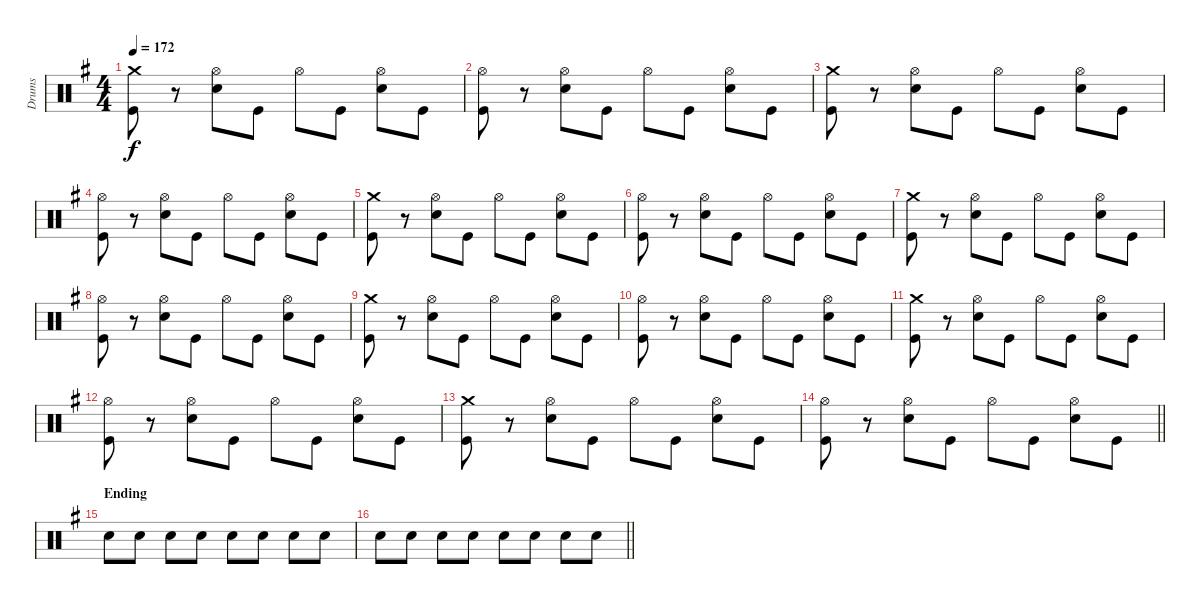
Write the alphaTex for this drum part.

\track ("Drums" "Drums") {instrument percussion}
\staff {score}
\articulation defaults
\ts (4 4)
\tempo 172
\clef neutral
\ks g
("Crash medium (hit)" "Kick (hit)").8{dy f} r.8 ("Hi-Hat (open)" "Snare (hit) 2").8 "Kick (hit)".8 "Hi-Hat (open)".8 "Kick (hit)".8 ("Hi-Hat (open)" "Snare (hit) 2").8 "Kick (hit)".8 |
("Hi-Hat (open)" "Kick (hit)").8 r.8 ("Hi-Hat (open)" "Snare (hit) 2").8 "Kick (hit)".8 "Hi-Hat (open)".8 "Kick (hit)".8 ("Hi-Hat (open)" "Snare (hit) 2").8 "Kick (hit)".8 |
("Crash medium (hit)" "Kick (hit)").8 r.8 ("Hi-Hat (open)" "Snare (hit) 2").8 "Kick (hit)".8 "Hi-Hat (open)".8 "Kick (hit)".8 ("Hi-Hat (open)" "Snare (hit) 2").8 "Kick (hit)".8 |
("Hi-Hat (open)" "Kick (hit)").8 r.8 ("Hi-Hat (open)" "Snare (hit) 2").8 "Kick (hit)".8 "Hi-Hat (open)".8 "Kick (hit)".8 ("Hi-Hat (open)" "Snare (hit) 2").8 "Kick (hit)".8 |
("Crash medium (hit)" "Kick (hit)").8 r.8 ("Hi-Hat (open)" "Snare (hit) 2").8 "Kick (hit)".8 "Hi-Hat (open)".8 "Kick (hit)".8 ("Hi-Hat (open)" "Snare (hit) 2").8 "Kick (hit)".8 |
("Hi-Hat (open)" "Kick (hit)").8 r.8 ("Hi-Hat (open)" "Snare (hit) 2").8 "Kick (hit)".8 "Hi-Hat (open)".8 "Kick (hit)".8 ("Hi-Hat (open)" "Snare (hit) 2").8 "Kick (hit)".8 |
("Crash medium (hit)" "Kick (hit)").8 r.8 ("Hi-Hat (open)" "Snare (hit) 2").8 "Kick (hit)".8 "Hi-Hat (open)".8 "Kick (hit)".8 ("Hi-Hat (open)" "Snare (hit) 2").8 "Kick (hit)".8 |
("Hi-Hat (open)" "Kick (hit)").8 r.8 ("Hi-Hat (open)" "Snare (hit) 2").8 "Kick (hit)".8 "Hi-Hat (open)".8 "Kick (hit)".8 ("Hi-Hat (open)" "Snare (hit) 2").8 "Kick (hit)".8 |
("Crash medium (hit)" "Kick (hit)").8 r.8 ("Hi-Hat (open)" "Snare (hit) 2").8 "Kick (hit)".8 "Hi-Hat (open)".8 "Kick (hit)".8 ("Hi-Hat (open)" "Snare (hit) 2").8 "Kick (hit)".8 |
("Hi-Hat (open)" "Kick (hit)").8 r.8 ("Hi-Hat (open)" "Snare (hit) 2").8 "Kick (hit)".8 "Hi-Hat (open)".8 "Kick (hit)".8 ("Hi-Hat (open)" "Snare (hit) 2").8 "Kick (hit)".8 |
("Crash medium (hit)" "Kick (hit)").8 r.8 ("Hi-Hat (open)" "Snare (hit) 2").8 "Kick (hit)".8 "Hi-Hat (open)".8 "Kick (hit)".8 ("Hi-Hat (open)" "Snare (hit) 2").8 "Kick (hit)".8 |
("Hi-Hat (open)" "Kick (hit)").8 r.8 ("Hi-Hat (open)" "Snare (hit) 2").8 "Kick (hit)".8 "Hi-Hat (open)".8 "Kick (hit)".8 ("Hi-Hat (open)" "Snare (hit) 2").8 "Kick (hit)".8 |
("Crash medium (hit)" "Kick (hit)").8 r.8 ("Hi-Hat (open)" "Snare (hit) 2").8 "Kick (hit)".8 "Hi-Hat (open)".8 "Kick (hit)".8 ("Hi-Hat (open)" "Snare (hit) 2").8 "Kick (hit)".8 |
\barLineRight lightlight
("Hi-Hat (open)" "Kick (hit)").8 r.8 ("Hi-Hat (open)" "Snare (hit) 2").8 "Kick (hit)".8 "Hi-Hat (open)".8 "Kick (hit)".8 ("Hi-Hat (open)" "Snare (hit) 2").8 "Kick (hit)".8 |
\section ("" "Ending")
"Snare (hit) 2".8 "Snare (hit) 2".8 "Snare (hit) 2".8 "Snare (hit) 2".8 "Snare (hit) 2".8 "Snare (hit) 2".8 "Snare (hit) 2".8 "Snare (hit) 2".8 |
\barLineRight lightlight "Snare (hit) 2".8 "Snare (hit) 2".8 "Snare (hit) 2".8 "Snare (hit) 2".8 "Snare (hit) 2".8 "Snare (hit) 2".8 "Snare (hit) 2".8 "Snare (hit) 2".8
